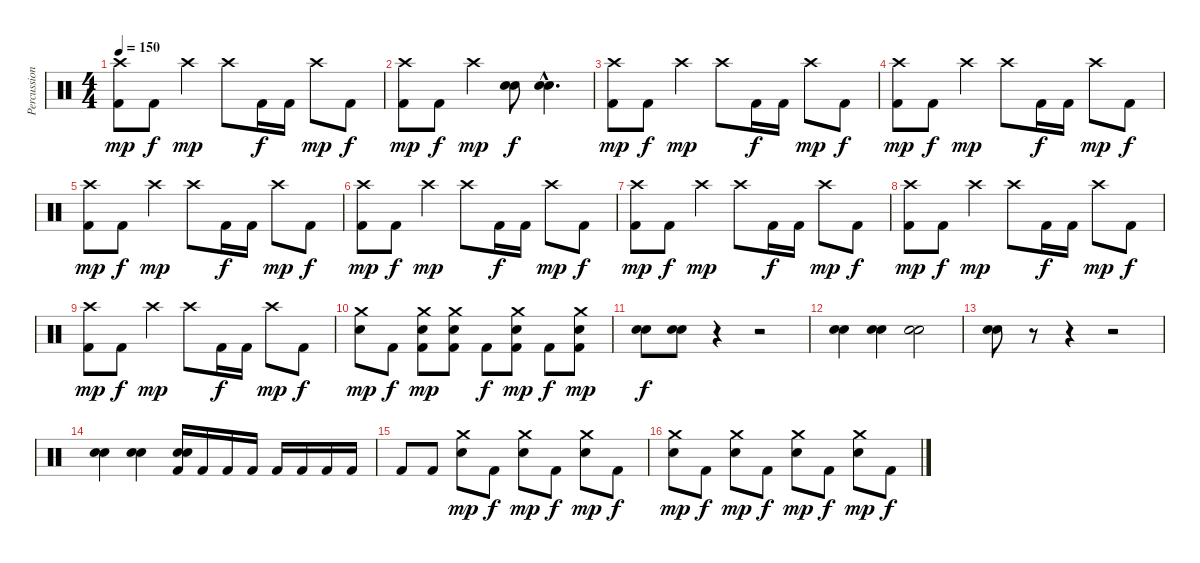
\track ("Percussions" "Percussion") {instrument percussion}
\staff {score}
\articulation defaults
\ts (4 4)
\tempo 150
\clef neutral
\ks c
("Kick (hit) 2" "Crash high (hit)").8{dy mp} "Kick (hit) 2".8{dy f} "Crash high (hit)".4{dy mp} "Crash high (hit)".8 "Kick (hit) 2".16{dy f} "Kick (hit) 2".16 "Crash high (hit)".8{dy mp} "Kick (hit) 2".8{dy f} |
("Kick (hit) 2" "Crash high (hit)").8{dy mp} "Kick (hit) 2".8{dy f} "Crash high (hit)".4{dy mp} ("Electric Snare (hit)" "Snare (hit) 2").8{dy f} ("Electric Snare (hit)"{hac} "Snare (hit) 2"{hac}).4{d} |
("Kick (hit) 2" "Crash high (hit)").8{dy mp} "Kick (hit) 2".8{dy f} "Crash high (hit)".4{dy mp} "Crash high (hit)".8 "Kick (hit) 2".16{dy f} "Kick (hit) 2".16 "Crash high (hit)".8{dy mp} "Kick (hit) 2".8{dy f} |
("Kick (hit) 2" "Crash high (hit)").8{dy mp} "Kick (hit) 2".8{dy f} "Crash high (hit)".4{dy mp} "Crash high (hit)".8 "Kick (hit) 2".16{dy f} "Kick (hit) 2".16 "Crash high (hit)".8{dy mp} "Kick (hit) 2".8{dy f} |
("Kick (hit) 2" "Crash high (hit)").8{dy mp} "Kick (hit) 2".8{dy f} "Crash high (hit)".4{dy mp} "Crash high (hit)".8 "Kick (hit) 2".16{dy f} "Kick (hit) 2".16 "Crash high (hit)".8{dy mp} "Kick (hit) 2".8{dy f} |
("Kick (hit) 2" "Crash high (hit)").8{dy mp} "Kick (hit) 2".8{dy f} "Crash high (hit)".4{dy mp} "Crash high (hit)".8 "Kick (hit) 2".16{dy f} "Kick (hit) 2".16 "Crash high (hit)".8{dy mp} "Kick (hit) 2".8{dy f} |
("Kick (hit) 2" "Crash high (hit)").8{dy mp} "Kick (hit) 2".8{dy f} "Crash high (hit)".4{dy mp} "Crash high (hit)".8 "Kick (hit) 2".16{dy f} "Kick (hit) 2".16 "Crash high (hit)".8{dy mp} "Kick (hit) 2".8{dy f} |
("Kick (hit) 2" "Crash high (hit)").8{dy mp} "Kick (hit) 2".8{dy f} "Crash high (hit)".4{dy mp} "Crash high (hit)".8 "Kick (hit) 2".16{dy f} "Kick (hit) 2".16 "Crash high (hit)".8{dy mp} "Kick (hit) 2".8{dy f} |
("Kick (hit) 2" "Crash high (hit)").8{dy mp} "Kick (hit) 2".8{dy f} "Crash high (hit)".4{dy mp} "Crash high (hit)".8 "Kick (hit) 2".16{dy f} "Kick (hit) 2".16 "Crash high (hit)".8{dy mp} "Kick (hit) 2".8{dy f} |
("Electric Snare (hit)" "Crash medium (hit)").8{dy mp} "Kick (hit) 2".8{dy f} ("Kick (hit) 2" "Electric Snare (hit)" "Crash medium (hit)").8{dy mp} ("Kick (hit) 2" "Electric Snare (hit)" "Crash medium (hit)").8 "Kick (hit) 2".8{dy f} ("Kick (hit) 2" "Electric Snare (hit)" "Crash medium (hit)").8{dy mp} "Kick (hit) 2".8{dy f} ("Kick (hit) 2" "Electric Snare (hit)" "Crash medium (hit)").8{dy mp} |
("Electric Snare (hit)" "Snare (hit) 2").8{dy f} ("Electric Snare (hit)" "Snare (hit) 2").8 r.4 r.2 |
("Electric Snare (hit)" "Snare (hit) 2").4 ("Electric Snare (hit)" "Snare (hit) 2").4 ("Electric Snare (hit)" "Snare (hit) 2").2 |
("Electric Snare (hit)" "Snare (hit) 2").8 r.8 r.4 r.2 |
("Electric Snare (hit)" "Snare (hit) 2").4 ("Electric Snare (hit)" "Snare (hit) 2").4 ("Kick (hit) 2" "Electric Snare (hit)" "Snare (hit) 2").16 "Kick (hit) 2".16 "Kick (hit) 2".16 "Kick (hit) 2".16 "Kick (hit) 2".16 "Kick (hit) 2".16 "Kick (hit) 2".16 "Kick (hit) 2".16 |
"Kick (hit) 2".8 "Kick (hit) 2".8 ("Electric Snare (hit)" "Crash medium (hit)").8{dy mp} "Kick (hit) 2".8{dy f} ("Electric Snare (hit)" "Crash medium (hit)").8{dy mp} "Kick (hit) 2".8{dy f} ("Electric Snare (hit)" "Crash medium (hit)").8{dy mp} "Kick (hit) 2".8{dy f} |
("Electric Snare (hit)" "Crash medium (hit)").8{dy mp} "Kick (hit) 2".8{dy f} ("Electric Snare (hit)" "Crash medium (hit)").8{dy mp} "Kick (hit) 2".8{dy f} ("Electric Snare (hit)" "Crash medium (hit)").8{dy mp} "Kick (hit) 2".8{dy f} ("Electric Snare (hit)" "Crash medium (hit)").8{dy mp} "Kick (hit) 2".8{dy f}
